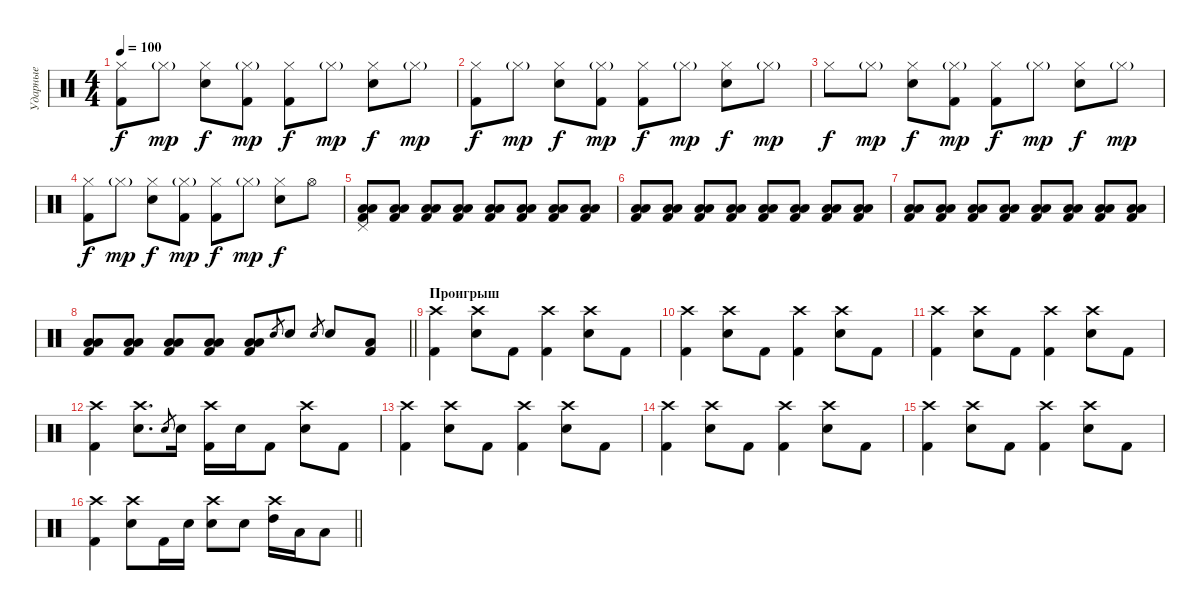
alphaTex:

\track ("Ударные" "Ударные") {instrument percussion}
\staff {score}
\articulation defaults
\ts (4 4)
\tempo 100
\clef neutral
\ks c
("Hi-Hat (closed)" "Kick (hit) 2").8{dy f} "Hi-Hat (closed)"{g}.8{dy mp} ("Hi-Hat (closed)" "Electric Snare (hit)").8{dy f} ("Hi-Hat (closed)"{g} "Kick (hit) 2").8{dy mp} ("Hi-Hat (closed)" "Kick (hit) 2").8{dy f} "Hi-Hat (closed)"{g}.8{dy mp} ("Hi-Hat (closed)" "Electric Snare (hit)").8{dy f} "Hi-Hat (closed)"{g}.8{dy mp} |
("Hi-Hat (closed)" "Kick (hit) 2").8{dy f} "Hi-Hat (closed)"{g}.8{dy mp} ("Hi-Hat (closed)" "Electric Snare (hit)").8{dy f} ("Hi-Hat (closed)"{g} "Kick (hit) 2").8{dy mp} ("Hi-Hat (closed)" "Kick (hit) 2").8{dy f} "Hi-Hat (closed)"{g}.8{dy mp} ("Hi-Hat (closed)" "Electric Snare (hit)").8{dy f} "Hi-Hat (closed)"{g}.8{dy mp} |
"Hi-Hat (closed)".8{dy f} "Hi-Hat (closed)"{g}.8{dy mp} ("Hi-Hat (closed)" "Electric Snare (hit)").8{dy f} ("Hi-Hat (closed)"{g} "Kick (hit) 2").8{dy mp} ("Hi-Hat (closed)" "Kick (hit) 2").8{dy f} "Hi-Hat (closed)"{g}.8{dy mp} ("Hi-Hat (closed)" "Electric Snare (hit)").8{dy f} "Hi-Hat (closed)"{g}.8{dy mp} |
("Hi-Hat (closed)" "Kick (hit) 2").8{dy f} "Hi-Hat (closed)"{g}.8{dy mp} ("Hi-Hat (closed)" "Electric Snare (hit)").8{dy f} ("Hi-Hat (closed)"{g} "Kick (hit) 2").8{dy mp} ("Hi-Hat (closed)" "Kick (hit) 2").8{dy f} "Hi-Hat (closed)"{g}.8{dy mp} ("Hi-Hat (closed)" "Electric Snare (hit)").8{dy f} "Hi-Hat (open)".8 |
("Pedal Hi-Hat (hit)" "Low Tom (hit)" "Low Floor Tom (hit)" "Kick (hit) 2").8{volume 3} ("Low Tom (hit)" "Low Floor Tom (hit)" "Kick (hit) 2").8{volume 13} ("Low Tom (hit)" "Low Floor Tom (hit)" "Kick (hit) 2").8 ("Low Tom (hit)" "Low Floor Tom (hit)" "Kick (hit) 2").8 ("Low Tom (hit)" "Low Floor Tom (hit)" "Kick (hit) 2").8 ("Low Tom (hit)" "Low Floor Tom (hit)" "Kick (hit) 2").8 ("Low Tom (hit)" "Low Floor Tom (hit)" "Kick (hit) 2").8 ("Low Tom (hit)" "Low Floor Tom (hit)" "Kick (hit) 2").8 |
("Low Tom (hit)" "Low Floor Tom (hit)" "Kick (hit) 2").8 ("Low Tom (hit)" "Low Floor Tom (hit)" "Kick (hit) 2").8 ("Low Tom (hit)" "Low Floor Tom (hit)" "Kick (hit) 2").8 ("Low Tom (hit)" "Low Floor Tom (hit)" "Kick (hit) 2").8 ("Low Tom (hit)" "Low Floor Tom (hit)" "Kick (hit) 2").8 ("Low Tom (hit)" "Low Floor Tom (hit)" "Kick (hit) 2").8 ("Low Tom (hit)" "Low Floor Tom (hit)" "Kick (hit) 2").8 ("Low Tom (hit)" "Low Floor Tom (hit)" "Kick (hit) 2").8 |
("Low Tom (hit)" "Low Floor Tom (hit)" "Kick (hit) 2").8 ("Low Tom (hit)" "Low Floor Tom (hit)" "Kick (hit) 2").8 ("Low Tom (hit)" "Low Floor Tom (hit)" "Kick (hit) 2").8 ("Low Tom (hit)" "Low Floor Tom (hit)" "Kick (hit) 2").8 ("Low Tom (hit)" "Low Floor Tom (hit)" "Kick (hit) 2").8 ("Low Tom (hit)" "Low Floor Tom (hit)" "Kick (hit) 2").8 ("Low Tom (hit)" "Low Floor Tom (hit)" "Kick (hit) 2").8 ("Low Tom (hit)" "Low Floor Tom (hit)" "Kick (hit) 2").8 |
\barLineRight lightlight
("Low Tom (hit)" "Low Floor Tom (hit)" "Kick (hit) 2").8 ("Low Tom (hit)" "Low Floor Tom (hit)" "Kick (hit) 2").8 ("Low Tom (hit)" "Low Floor Tom (hit)" "Kick (hit) 2").8 ("Low Tom (hit)" "Low Floor Tom (hit)" "Kick (hit) 2").8 ("Low Tom (hit)" "Low Floor Tom (hit)" "Kick (hit) 2").8 "Electric Snare (hit)".8{gr} "Electric Snare (hit)".8 "Electric Snare (hit)".8{gr} "Electric Snare (hit)".8 ("Low Tom (hit)" "Kick (hit) 2").8 |
\section ("" "Проигрыш")
("Crash high (hit)" "Kick (hit) 2").4 ("Crash high (hit)" "Electric Snare (hit)").8 "Kick (hit) 2".8 ("Crash high (hit)" "Kick (hit) 2").4 ("Crash high (hit)" "Electric Snare (hit)").8 "Kick (hit) 2".8 |
("Crash high (hit)" "Kick (hit) 2").4 ("Crash high (hit)" "Electric Snare (hit)").8 "Kick (hit) 2".8 ("Crash high (hit)" "Kick (hit) 2").4 ("Crash high (hit)" "Electric Snare (hit)").8 "Kick (hit) 2".8 |
("Crash high (hit)" "Kick (hit) 2").4 ("Crash high (hit)" "Electric Snare (hit)").8 "Kick (hit) 2".8 ("Crash high (hit)" "Kick (hit) 2").4 ("Crash high (hit)" "Electric Snare (hit)").8 "Kick (hit) 2".8 |
("Crash high (hit)" "Kick (hit) 2").4 ("Crash high (hit)" "Electric Snare (hit)").8{d} "Electric Snare (hit)".8{gr} "Electric Snare (hit)".16 ("Crash high (hit)" "Kick (hit) 2").16 "Electric Snare (hit)".16 "Kick (hit) 2".8 ("Crash high (hit)" "Electric Snare (hit)").8 "Kick (hit) 2".8 |
("Crash high (hit)" "Kick (hit) 2").4 ("Crash high (hit)" "Electric Snare (hit)").8 "Kick (hit) 2".8 ("Crash high (hit)" "Kick (hit) 2").4 ("Crash high (hit)" "Electric Snare (hit)").8 "Kick (hit) 2".8 |
("Crash high (hit)" "Kick (hit) 2").4 ("Crash high (hit)" "Electric Snare (hit)").8 "Kick (hit) 2".8 ("Crash high (hit)" "Kick (hit) 2").4 ("Crash high (hit)" "Electric Snare (hit)").8 "Kick (hit) 2".8 |
("Crash high (hit)" "Kick (hit) 2").4 ("Crash high (hit)" "Electric Snare (hit)").8 "Kick (hit) 2".8 ("Crash high (hit)" "Kick (hit) 2").4 ("Crash high (hit)" "Electric Snare (hit)").8 "Kick (hit) 2".8 |
\barLineRight lightlight
("Crash high (hit)" "Kick (hit) 2").4 ("Crash high (hit)" "Electric Snare (hit)").8 "Kick (hit) 2".16 "Electric Snare (hit)".16 ("Crash high (hit)" "Electric Snare (hit)").8 "Electric Snare (hit)".8 ("Crash high (hit)" "High Tom (hit)").16 "Low Tom (hit)".16 "Low Tom (hit)".8
